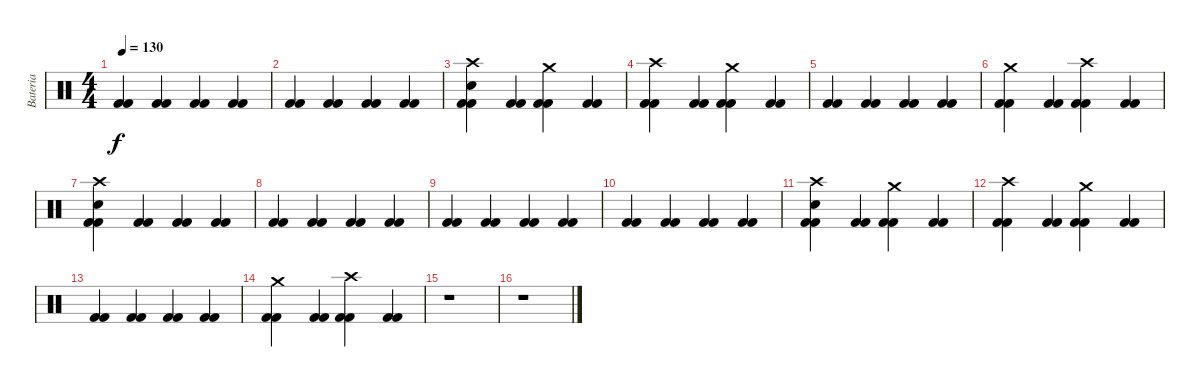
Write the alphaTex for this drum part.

\track ("Bateria" "Bateria") {instrument percussion}
\staff {score}
\articulation defaults
\ts (4 4)
\tempo 130
\clef neutral
\ks c
("Kick (hit) 2" "Kick (hit) 2").4{dy f} ("Kick (hit) 2" "Kick (hit) 2").4 ("Kick (hit) 2" "Kick (hit) 2").4 ("Kick (hit) 2" "Kick (hit) 2").4 |
("Kick (hit) 2" "Kick (hit) 2").4 ("Kick (hit) 2" "Kick (hit) 2").4 ("Kick (hit) 2" "Kick (hit) 2").4 ("Kick (hit) 2" "Kick (hit) 2").4 |
("Kick (hit) 2" "Kick (hit) 2" "Snare (hit) 2" "Crash high (hit)").4 ("Kick (hit) 2" "Kick (hit) 2").4 ("Kick (hit) 2" "Kick (hit) 2" "Crash medium (hit)").4 ("Kick (hit) 2" "Kick (hit) 2").4 |
("Kick (hit) 2" "Kick (hit) 2" "Crash high (hit)").4 ("Kick (hit) 2" "Kick (hit) 2").4 ("Kick (hit) 2" "Kick (hit) 2" "Crash medium (hit)").4 ("Kick (hit) 2" "Kick (hit) 2").4 |
("Kick (hit) 2" "Kick (hit) 2").4 ("Kick (hit) 2" "Kick (hit) 2").4 ("Kick (hit) 2" "Kick (hit) 2").4 ("Kick (hit) 2" "Kick (hit) 2").4 |
("Kick (hit) 2" "Kick (hit) 2" "Crash medium (hit)").4 ("Kick (hit) 2" "Kick (hit) 2").4 ("Kick (hit) 2" "Kick (hit) 2" "Crash high (hit)").4 ("Kick (hit) 2" "Kick (hit) 2").4 |
("Kick (hit) 2" "Kick (hit) 2" "Snare (hit) 2" "Crash high (hit)").4 ("Kick (hit) 2" "Kick (hit) 2").4 ("Kick (hit) 2" "Kick (hit) 2").4 ("Kick (hit) 2" "Kick (hit) 2").4 |
("Kick (hit) 2" "Kick (hit) 2").4 ("Kick (hit) 2" "Kick (hit) 2").4 ("Kick (hit) 2" "Kick (hit) 2").4 ("Kick (hit) 2" "Kick (hit) 2").4 |
("Kick (hit) 2" "Kick (hit) 2").4 ("Kick (hit) 2" "Kick (hit) 2").4 ("Kick (hit) 2" "Kick (hit) 2").4 ("Kick (hit) 2" "Kick (hit) 2").4 |
("Kick (hit) 2" "Kick (hit) 2").4 ("Kick (hit) 2" "Kick (hit) 2").4 ("Kick (hit) 2" "Kick (hit) 2").4 ("Kick (hit) 2" "Kick (hit) 2").4 |
("Kick (hit) 2" "Kick (hit) 2" "Snare (hit) 2" "Crash high (hit)").4 ("Kick (hit) 2" "Kick (hit) 2").4 ("Kick (hit) 2" "Kick (hit) 2" "Crash medium (hit)").4 ("Kick (hit) 2" "Kick (hit) 2").4 |
("Kick (hit) 2" "Kick (hit) 2" "Crash high (hit)").4 ("Kick (hit) 2" "Kick (hit) 2").4 ("Kick (hit) 2" "Kick (hit) 2" "Crash medium (hit)").4 ("Kick (hit) 2" "Kick (hit) 2").4 |
("Kick (hit) 2" "Kick (hit) 2").4 ("Kick (hit) 2" "Kick (hit) 2").4 ("Kick (hit) 2" "Kick (hit) 2").4 ("Kick (hit) 2" "Kick (hit) 2").4 |
("Kick (hit) 2" "Kick (hit) 2" "Crash medium (hit)").4 ("Kick (hit) 2" "Kick (hit) 2").4 ("Kick (hit) 2" "Kick (hit) 2" "Crash high (hit)").4 ("Kick (hit) 2" "Kick (hit) 2").4 |
r.1 |
r.1
